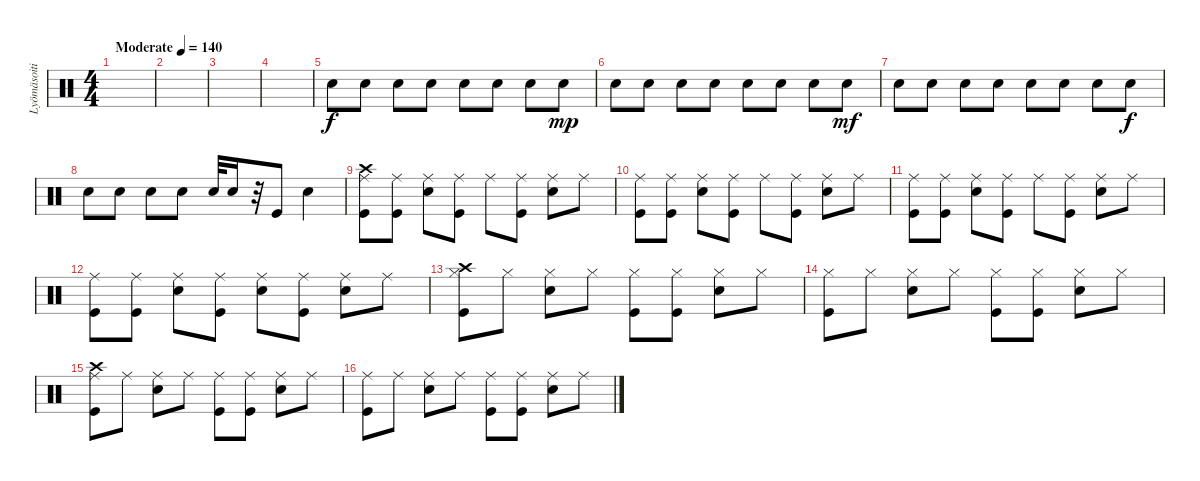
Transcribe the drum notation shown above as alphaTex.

\track ("Lyömäsoitin" "Lyömäsoiti") {instrument percussion}
\staff {score}
\articulation defaults
\ts (4 4)
\tempo (140 "Moderate")
\clef neutral
\ks c
|
|
|
|
"Snare (hit) 2".8 "Snare (hit) 2".8 "Snare (hit) 2".8 "Snare (hit) 2".8 "Snare (hit) 2".8 "Snare (hit) 2".8 "Snare (hit) 2".8 "Snare (hit) 2".8{dy mp} |
"Snare (hit) 2".8 "Snare (hit) 2".8 "Snare (hit) 2".8 "Snare (hit) 2".8 "Snare (hit) 2".8 "Snare (hit) 2".8 "Snare (hit) 2".8 "Snare (hit) 2".8{dy mf} |
"Snare (hit) 2".8 "Snare (hit) 2".8 "Snare (hit) 2".8 "Snare (hit) 2".8 "Snare (hit) 2".8 "Snare (hit) 2".8 "Snare (hit) 2".8 "Snare (hit) 2".8{dy f} |
"Snare (hit) 2".8 "Snare (hit) 2".8 "Snare (hit) 2".8 "Snare (hit) 2".8 "Snare (hit) 2".32 "Snare (hit) 2".16 r.32 "Kick (hit)".8 "Snare (hit) 2".4 |
("Crash high (hit)" "Ride (middle)" "Kick (hit)").8 ("Ride (middle)" "Kick (hit)").8 ("Ride (middle)" "Snare (hit) 2").8 ("Ride (middle)" "Kick (hit)").8 "Ride (middle)".8 ("Ride (middle)" "Kick (hit)").8 ("Ride (middle)" "Snare (hit) 2").8 "Ride (middle)".8 |
("Ride (middle)" "Kick (hit)").8 ("Ride (middle)" "Kick (hit)").8 ("Ride (middle)" "Snare (hit) 2").8 ("Ride (middle)" "Kick (hit)").8 "Ride (middle)".8 ("Ride (middle)" "Kick (hit)").8 ("Ride (middle)" "Snare (hit) 2").8 "Ride (middle)".8 |
("Ride (middle)" "Kick (hit)").8 ("Ride (middle)" "Kick (hit)").8 ("Ride (middle)" "Snare (hit) 2").8 ("Ride (middle)" "Kick (hit)").8 "Ride (middle)".8 ("Ride (middle)" "Kick (hit)").8 ("Ride (middle)" "Snare (hit) 2").8 "Ride (middle)".8 |
("Ride (middle)" "Kick (hit)").8 ("Ride (middle)" "Kick (hit)").8 ("Ride (middle)" "Snare (hit) 2").8 ("Ride (middle)" "Kick (hit)").8 ("Ride (middle)" "Snare (hit) 2").8 ("Ride (middle)" "Kick (hit)").8 ("Ride (middle)" "Snare (hit) 2").8 "Ride (middle)".8 |
("Crash high (hit)" "Hi-Hat (closed)" "Kick (hit)").8 "Hi-Hat (closed)".8 ("Hi-Hat (closed)" "Snare (hit) 2").8 "Hi-Hat (closed)".8 ("Hi-Hat (closed)" "Kick (hit)").8 ("Hi-Hat (closed)" "Kick (hit)").8 ("Hi-Hat (closed)" "Snare (hit) 2").8 "Hi-Hat (closed)".8 |
("Hi-Hat (closed)" "Kick (hit)").8 "Hi-Hat (closed)".8 ("Hi-Hat (closed)" "Snare (hit) 2").8 "Hi-Hat (closed)".8 ("Hi-Hat (closed)" "Kick (hit)").8 ("Hi-Hat (closed)" "Kick (hit)").8 ("Hi-Hat (closed)" "Snare (hit) 2").8 "Hi-Hat (closed)".8 |
("Crash high (hit)" "Ride (middle)" "Kick (hit)").8 "Ride (middle)".8 ("Ride (middle)" "Snare (hit) 2").8 "Ride (middle)".8 ("Ride (middle)" "Kick (hit)").8 ("Ride (middle)" "Kick (hit)").8 ("Ride (middle)" "Snare (hit) 2").8 "Ride (middle)".8 |
("Ride (middle)" "Kick (hit)").8 "Ride (middle)".8 ("Ride (middle)" "Snare (hit) 2").8 "Ride (middle)".8 ("Ride (middle)" "Kick (hit)").8 ("Ride (middle)" "Kick (hit)").8 ("Ride (middle)" "Snare (hit) 2").8 "Ride (middle)".8
